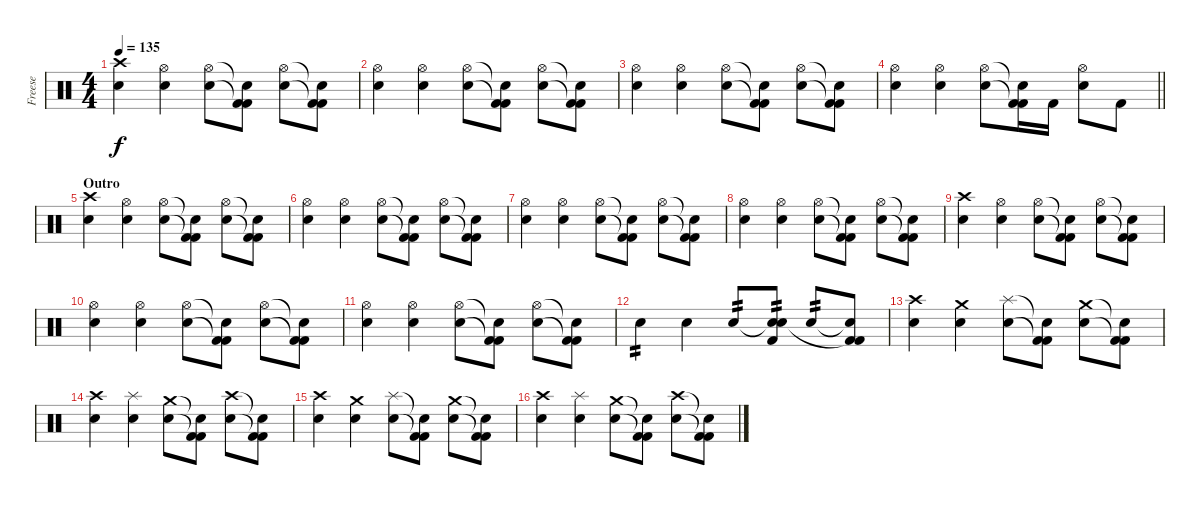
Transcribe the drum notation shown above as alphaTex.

\track ("Freese" "Freese") {instrument percussion}
\staff {score}
\articulation defaults
\ts (4 4)
\tempo 135
\clef neutral
\ks c
("Crash high (hit)" "Electric Snare (hit)").4{dy f} ("Hi-Hat (open)" "Electric Snare (hit)").4 ("Hi-Hat (open)" "Electric Snare (hit)").8 ("Snare (hit)"{t} "Kick (hit) 2"{t} "Kick (hit) 2").8 ("Hi-Hat (open)" "Electric Snare (hit)").8 ("Snare (hit)"{t} "Kick (hit) 2"{t} "Kick (hit) 2").8 |
("Hi-Hat (open)" "Electric Snare (hit)").4 ("Hi-Hat (open)" "Electric Snare (hit)").4 ("Hi-Hat (open)" "Electric Snare (hit)").8 ("Snare (hit)"{t} "Kick (hit) 2"{t} "Kick (hit) 2").8 ("Hi-Hat (open)" "Electric Snare (hit)").8 ("Snare (hit)"{t} "Kick (hit) 2"{t} "Kick (hit) 2").8 |
("Hi-Hat (open)" "Electric Snare (hit)").4 ("Hi-Hat (open)" "Electric Snare (hit)").4 ("Hi-Hat (open)" "Electric Snare (hit)").8 ("Snare (hit)"{t} "Kick (hit) 2"{t} "Kick (hit) 2").8 ("Hi-Hat (open)" "Electric Snare (hit)").8 ("Snare (hit)"{t} "Kick (hit) 2"{t} "Kick (hit) 2").8 |
\barLineRight lightlight
("Hi-Hat (open)" "Electric Snare (hit)").4 ("Hi-Hat (open)" "Electric Snare (hit)").4 ("Hi-Hat (open)" "Electric Snare (hit)").8 ("Snare (hit)"{t} "Kick (hit) 2"{t} "Kick (hit) 2").16 "Kick (hit) 2".16 ("Hi-Hat (open)" "Electric Snare (hit)").8 "Kick (hit) 2".8 |
\section ("" "Outro")
("Crash high (hit)" "Electric Snare (hit)").4 ("Hi-Hat (open)" "Electric Snare (hit)").4 ("Hi-Hat (open)" "Electric Snare (hit)").8 ("Snare (hit)"{t} "Kick (hit) 2"{t} "Kick (hit) 2").8 ("Hi-Hat (open)" "Electric Snare (hit)").8 ("Snare (hit)"{t} "Kick (hit) 2"{t} "Kick (hit) 2").8 |
("Hi-Hat (open)" "Electric Snare (hit)").4 ("Hi-Hat (open)" "Electric Snare (hit)").4 ("Hi-Hat (open)" "Electric Snare (hit)").8 ("Snare (hit)"{t} "Kick (hit) 2"{t} "Kick (hit) 2").8 ("Hi-Hat (open)" "Electric Snare (hit)").8 ("Snare (hit)"{t} "Kick (hit) 2"{t} "Kick (hit) 2").8 |
("Hi-Hat (open)" "Electric Snare (hit)").4 ("Hi-Hat (open)" "Electric Snare (hit)").4 ("Hi-Hat (open)" "Electric Snare (hit)").8 ("Snare (hit)"{t} "Kick (hit) 2"{t} "Kick (hit) 2").8 ("Hi-Hat (open)" "Electric Snare (hit)").8 ("Snare (hit)"{t} "Kick (hit) 2"{t} "Kick (hit) 2").8 |
("Hi-Hat (open)" "Electric Snare (hit)").4 ("Hi-Hat (open)" "Electric Snare (hit)").4 ("Hi-Hat (open)" "Electric Snare (hit)").8 ("Snare (hit)"{t} "Kick (hit) 2"{t} "Kick (hit) 2").8 ("Hi-Hat (open)" "Electric Snare (hit)").8 ("Snare (hit)"{t} "Kick (hit) 2"{t} "Kick (hit) 2").8 |
("Crash high (hit)" "Electric Snare (hit)").4 ("Hi-Hat (open)" "Electric Snare (hit)").4 ("Hi-Hat (open)" "Electric Snare (hit)").8 ("Snare (hit)"{t} "Kick (hit) 2"{t} "Kick (hit) 2").8 ("Hi-Hat (open)" "Electric Snare (hit)").8 ("Snare (hit)"{t} "Kick (hit) 2"{t} "Kick (hit) 2").8 |
("Hi-Hat (open)" "Electric Snare (hit)").4 ("Hi-Hat (open)" "Electric Snare (hit)").4 ("Hi-Hat (open)" "Electric Snare (hit)").8 ("Snare (hit)"{t} "Kick (hit) 2"{t} "Kick (hit) 2").8 ("Hi-Hat (open)" "Electric Snare (hit)").8 ("Snare (hit)"{t} "Kick (hit) 2"{t} "Kick (hit) 2").8 |
("Hi-Hat (open)" "Electric Snare (hit)").4 ("Hi-Hat (open)" "Electric Snare (hit)").4 ("Hi-Hat (open)" "Electric Snare (hit)").8 ("Snare (hit)"{t} "Kick (hit) 2"{t} "Kick (hit) 2").8 ("Hi-Hat (open)" "Electric Snare (hit)").8 ("Snare (hit)"{t} "Kick (hit) 2"{t} "Kick (hit) 2").8 |
"Electric Snare (hit)".4{tp 2} "Electric Snare (hit)".4 "Electric Snare (hit)".8{tp 2} ("Snare (hit)"{t} "Electric Snare (hit)" "Kick (hit) 2").8{tp 2} "Electric Snare (hit)".8{tp 2} ("Snare (hit)"{t} "Kick (hit) 2"{t} "Kick (hit) 2").8 |
("Crash high (hit)" "Electric Snare (hit)").4 ("Crash medium (hit)" "Electric Snare (hit)").4 ("Splash (hit)" "Electric Snare (hit)").8 ("Snare (hit)"{t} "Kick (hit) 2"{t} "Kick (hit) 2").8 ("Crash medium (hit)" "Electric Snare (hit)").8 ("Snare (hit)"{t} "Kick (hit) 2"{t} "Kick (hit) 2").8 |
("Crash high (hit)" "Electric Snare (hit)").4 ("Splash (hit)" "Electric Snare (hit)").4 ("Crash medium (hit)" "Electric Snare (hit)").8 ("Snare (hit)"{t} "Kick (hit) 2"{t} "Kick (hit) 2").8 ("Crash high (hit)" "Electric Snare (hit)").8 ("Snare (hit)"{t} "Kick (hit) 2"{t} "Kick (hit) 2").8 |
("Crash high (hit)" "Electric Snare (hit)").4 ("Crash medium (hit)" "Electric Snare (hit)").4 ("Splash (hit)" "Electric Snare (hit)").8 ("Snare (hit)"{t} "Kick (hit) 2"{t} "Kick (hit) 2").8 ("Crash medium (hit)" "Electric Snare (hit)").8 ("Snare (hit)"{t} "Kick (hit) 2"{t} "Kick (hit) 2").8 |
("Crash high (hit)" "Electric Snare (hit)").4 ("Splash (hit)" "Electric Snare (hit)").4 ("Crash medium (hit)" "Electric Snare (hit)").8 ("Snare (hit)"{t} "Kick (hit) 2"{t} "Kick (hit) 2").8 ("Crash high (hit)" "Electric Snare (hit)").8 ("Snare (hit)"{t} "Kick (hit) 2"{t} "Kick (hit) 2").8
